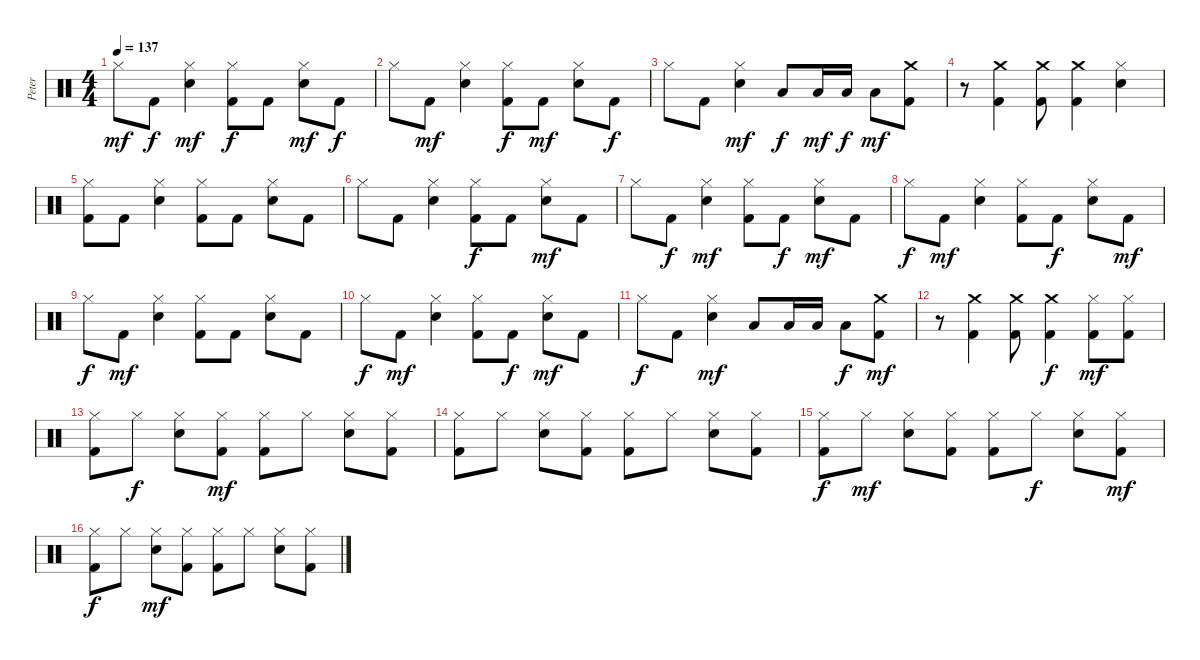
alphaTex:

\track ("Peter" "Peter") {instrument percussion}
\staff {score}
\articulation defaults
\ts (4 4)
\tempo 137
\clef neutral
\ks c "Hi-Hat (closed)".8{dy mf} "Kick (hit) 2".8{dy f}
("Electric Snare (hit)" "Hi-Hat (closed)").4{dy mf} ("Kick (hit) 2" "Hi-Hat (closed)").8{dy f} "Kick (hit) 2".8 ("Electric Snare (hit)" "Hi-Hat (closed)").8{dy mf} "Kick (hit) 2".8{dy f} |
"Hi-Hat (closed)".8 "Kick (hit) 2".8{dy mf} ("Electric Snare (hit)" "Hi-Hat (closed)").4 ("Hi-Hat (closed)" "Kick (hit) 2").8{dy f} "Kick (hit) 2".8{dy mf} ("Electric Snare (hit)" "Hi-Hat (closed)").8 "Kick (hit) 2".8{dy f} |
"Hi-Hat (closed)".8 "Kick (hit) 2".8 ("Hi-Hat (closed)" "Electric Snare (hit)").4{dy mf} "Low Tom (hit)".8{dy f} "Low Tom (hit)".16{dy mf} "Low Tom (hit)".16{dy f} "Low Tom (hit)".8{dy mf} ("Crash medium (hit)" "Kick (hit) 2").8 |
r.8 ("Kick (hit) 2" "Crash medium (hit)").4 ("Kick (hit) 2" "Crash medium (hit)").8 ("Kick (hit) 2" "Crash medium (hit)").4 ("Electric Snare (hit)" "Hi-Hat (closed)").4 |
("Hi-Hat (closed)" "Kick (hit) 2").8 "Kick (hit) 2".8 ("Hi-Hat (closed)" "Electric Snare (hit)").4 ("Hi-Hat (closed)" "Kick (hit) 2").8 "Kick (hit) 2".8 ("Hi-Hat (closed)" "Electric Snare (hit)").8 "Kick (hit) 2".8 |
"Hi-Hat (closed)".8 "Kick (hit) 2".8 ("Hi-Hat (closed)" "Electric Snare (hit)").4 ("Kick (hit) 2" "Hi-Hat (closed)").8{dy f} "Kick (hit) 2".8 ("Hi-Hat (closed)" "Electric Snare (hit)").8{dy mf} "Kick (hit) 2".8 |
"Hi-Hat (closed)".8 "Kick (hit) 2".8{dy f} ("Electric Snare (hit)" "Hi-Hat (closed)").4{dy mf} ("Hi-Hat (closed)" "Kick (hit) 2").8 "Kick (hit) 2".8{dy f} ("Hi-Hat (closed)" "Electric Snare (hit)").8{dy mf} "Kick (hit) 2".8 |
"Hi-Hat (closed)".8{dy f} "Kick (hit) 2".8{dy mf} ("Hi-Hat (closed)" "Electric Snare (hit)").4 ("Kick (hit) 2" "Hi-Hat (closed)").8 "Kick (hit) 2".8{dy f} ("Electric Snare (hit)" "Hi-Hat (closed)").8 "Kick (hit) 2".8{dy mf} |
"Hi-Hat (closed)".8{dy f} "Kick (hit) 2".8{dy mf} ("Hi-Hat (closed)" "Electric Snare (hit)").4 ("Kick (hit) 2" "Hi-Hat (closed)").8 "Kick (hit) 2".8 ("Hi-Hat (closed)" "Electric Snare (hit)").8 "Kick (hit) 2".8 |
"Hi-Hat (closed)".8{dy f} "Kick (hit) 2".8{dy mf} ("Hi-Hat (closed)" "Electric Snare (hit)").4 ("Hi-Hat (closed)" "Kick (hit) 2").8 "Kick (hit) 2".8{dy f} ("Electric Snare (hit)" "Hi-Hat (closed)").8{dy mf} "Kick (hit) 2".8 |
"Hi-Hat (closed)".8{dy f} "Kick (hit) 2".8 ("Hi-Hat (closed)" "Electric Snare (hit)").4{dy mf} "Low Tom (hit)".8 "Low Tom (hit)".16 "Low Tom (hit)".16 "Low Tom (hit)".8{dy f} ("Crash medium (hit)" "Kick (hit) 2").8{dy mf} |
r.8 ("Kick (hit) 2" "Crash medium (hit)").4 ("Kick (hit) 2" "Crash medium (hit)").8 ("Crash medium (hit)" "Kick (hit) 2").4{dy f} ("Hi-Hat (closed)" "Kick (hit) 2").8{dy mf} ("Kick (hit) 2" "Hi-Hat (closed)").8 |
("Kick (hit) 2" "Hi-Hat (closed)").8 "Hi-Hat (closed)".8{dy f} ("Hi-Hat (closed)" "Electric Snare (hit)").8 ("Hi-Hat (closed)" "Kick (hit) 2").8{dy mf} ("Kick (hit) 2" "Hi-Hat (closed)").8 "Hi-Hat (closed)".8 ("Electric Snare (hit)" "Hi-Hat (closed)").8 ("Hi-Hat (closed)" "Kick (hit) 2").8 |
("Kick (hit) 2" "Hi-Hat (closed)").8 "Hi-Hat (closed)".8 ("Hi-Hat (closed)" "Electric Snare (hit)").8 ("Hi-Hat (closed)" "Kick (hit) 2").8 ("Kick (hit) 2" "Hi-Hat (closed)").8 "Hi-Hat (closed)".8 ("Electric Snare (hit)" "Hi-Hat (closed)").8 ("Hi-Hat (closed)" "Kick (hit) 2").8 |
("Hi-Hat (closed)" "Kick (hit) 2").8{dy f} "Hi-Hat (closed)".8{dy mf} ("Electric Snare (hit)" "Hi-Hat (closed)").8 ("Kick (hit) 2" "Hi-Hat (closed)").8 ("Hi-Hat (closed)" "Kick (hit) 2").8 "Hi-Hat (closed)".8{dy f} ("Electric Snare (hit)" "Hi-Hat (closed)").8 ("Kick (hit) 2" "Hi-Hat (closed)").8{dy mf} |
("Kick (hit) 2" "Hi-Hat (closed)").8{dy f} "Hi-Hat (closed)".8 ("Hi-Hat (closed)" "Electric Snare (hit)").8{dy mf} ("Hi-Hat (closed)" "Kick (hit) 2").8 ("Hi-Hat (closed)" "Kick (hit) 2").8 "Hi-Hat (closed)".8 ("Hi-Hat (closed)" "Electric Snare (hit)").8 ("Hi-Hat (closed)" "Kick (hit) 2").8
